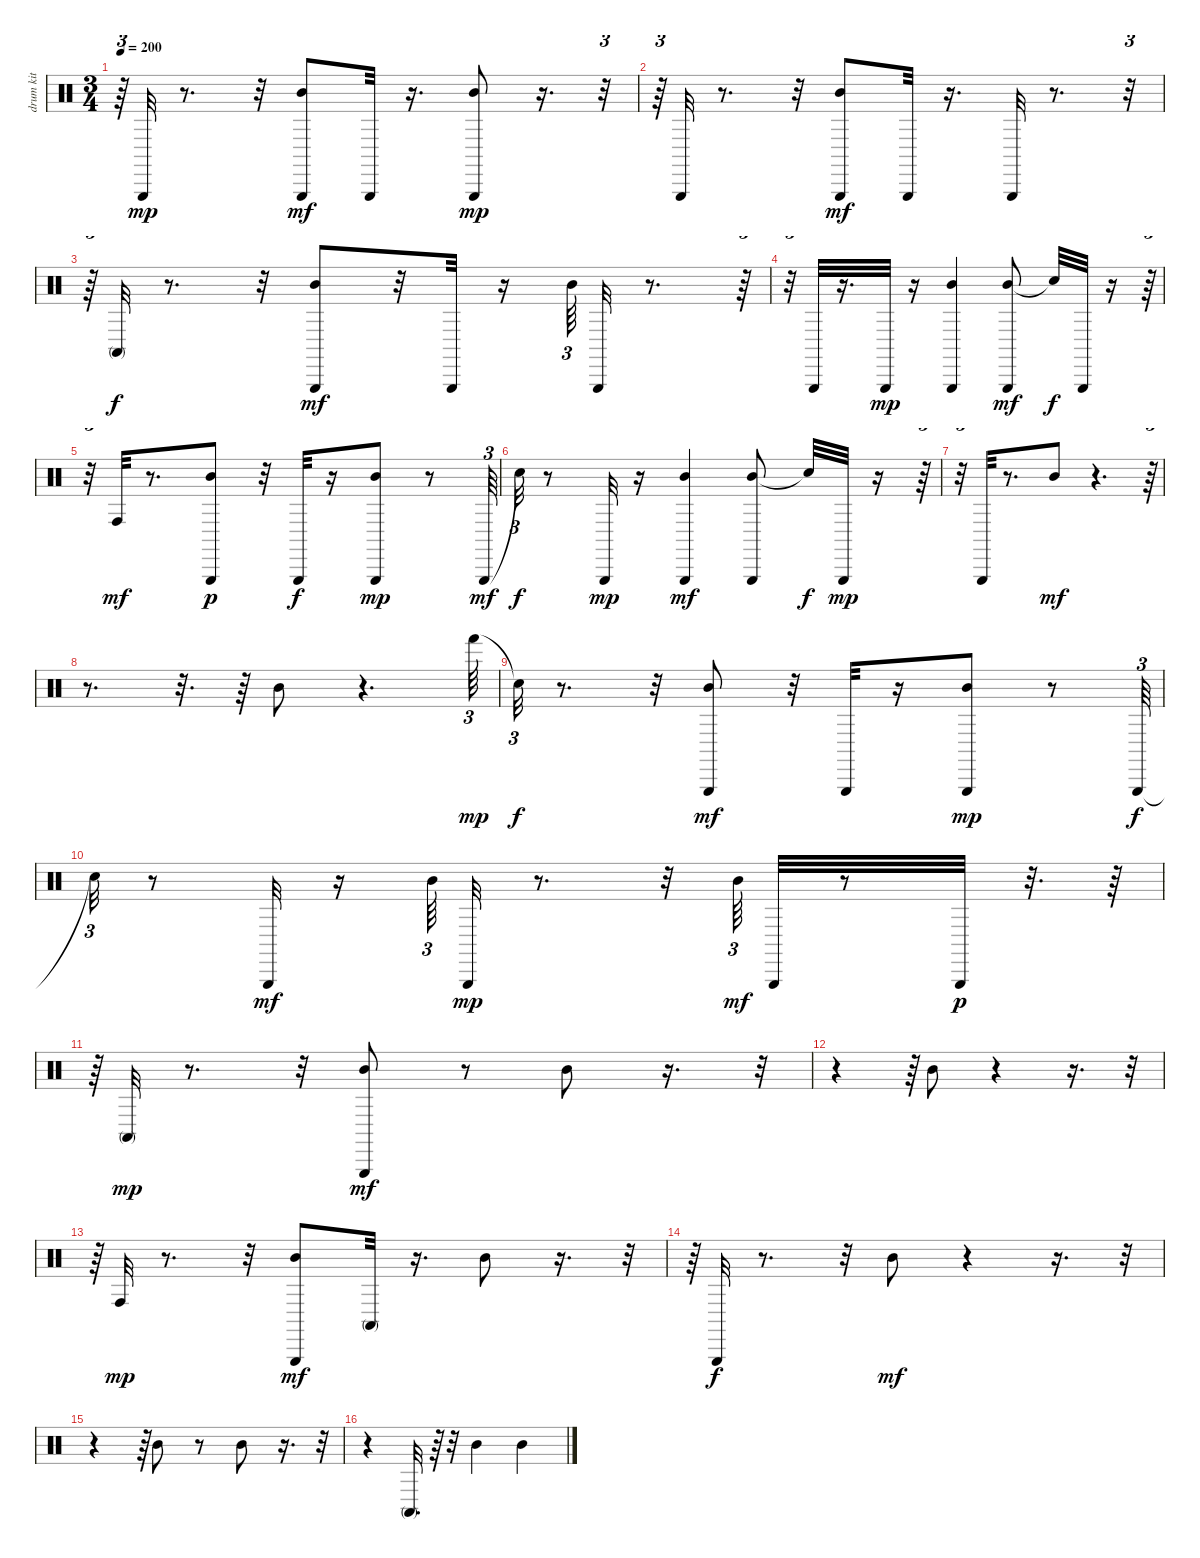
\track (" drum kit (hi-hat/cymbals)" " drum kit ") {instrument percussion}
\staff {score}
\articulation defaults
\ts (3 4)
\tempo 200
\clef neutral
\ks c
r.64{tu (3 2) dy f} "Triangle (hit)".32{dy mp} r.8{d} r.32 ("Mid Tom (hit)" "Triangle (hit)").8{dy mf} "Triangle (hit)".32 r.16{d} ("Mid Tom (hit)" "Triangle (hit)").8{dy mp} r.16{d} r.32{tu (3 2)} |
r.64{tu (3 2)} "Triangle (hit)".32 r.8{d} r.32 ("Mid Tom (hit)" "Triangle (hit)").8{dy mf} "Triangle (hit)".32 r.16{d} "Triangle (hit)".32 r.8{d} r.32{tu (3 2)} |
r.64{tu (3 2)} "Conga high (mute)".32{dy f} r.8{d} r.32 ("Mid Tom (hit)" "Triangle (hit)").8{dy mf} r.32 "Triangle (hit)".32 r.16 "Mid Tom (hit)".64{tu (3 2)} "Triangle (hit)".32 r.8{d} r.64{tu (3 2)} |
r.32{tu (3 2)} "Triangle (hit)".32 r.16{d} "Triangle (hit)".32{dy mp} r.16 ("Mid Tom (hit)" "Triangle (hit)").4 ("Mid Tom (hit)" "Triangle (hit)").8{dy mf} "Snare (hit)"{t}.32{dy f} "Triangle (hit)".32 r.16 r.64{tu (3 2)} |
r.32{tu (3 2)} "Conga high (hit)".32{dy mf} r.8{d} ("Mid Tom (hit)" "Triangle (hit)").8{dy p} r.32 "Triangle (hit)".32{dy f} r.16 ("Mid Tom (hit)" "Triangle (hit)").8{dy mp} r.8 "Triangle (hit)".64{tu (3 2) dy mf} |
"Snare (hit)"{t}.32{tu (3 2) dy f} r.8 "Triangle (hit)".32{dy mp} r.16 ("Mid Tom (hit)" "Triangle (hit)").4{dy mf} ("Mid Tom (hit)" "Triangle (hit)").8 "Snare (hit)"{t}.32{dy f} "Triangle (hit)".32{dy mp} r.16 r.64{tu (3 2)} |
r.32{tu (3 2)} "Triangle (hit)".32 r.8{d} "Mid Tom (hit)".8{dy mf} r.4{d} r.64{tu (3 2)} |
r.8{d} r.32{d} r.64 "Mid Tom (hit)".8 r.4{d} "Hand (hit)".64{tu (3 2) dy mp} |
"Snare (hit)"{t}.32{tu (3 2) dy f} r.8{d} r.32 ("Mid Tom (hit)" "Triangle (hit)").8{dy mf} r.32 "Triangle (hit)".32 r.16 ("Mid Tom (hit)" "Triangle (hit)").8{dy mp} r.8 "Triangle (hit)".64{tu (3 2) dy f} |
"Snare (hit)"{t}.32{tu (3 2)} r.8 "Triangle (hit)".32{dy mf} r.16 "Mid Tom (hit)".64{tu (3 2)} "Triangle (hit)".32{dy mp} r.8{d} r.32 "Mid Tom (hit)".64{tu (3 2) dy mf} "Triangle (hit)".32 r.8 "Triangle (hit)".32{dy p} r.32{d} r.64 |
r.64{tu (3 2)} "Conga high (mute)".32{dy mp} r.8{d} r.32 ("Mid Tom (hit)" "Triangle (hit)").8{dy mf} r.8 "Mid Tom (hit)".8 r.16{d} r.32{tu (3 2)} |
r.4 r.64{tu (3 2)} "Mid Tom (hit)".8 r.4 r.16{d} r.32{tu (3 2)} |
r.64{tu (3 2)} "Conga high (hit)".32{dy mp} r.8{d} r.32 ("Mid Tom (hit)" "Triangle (hit)").8{dy mf} "Conga high (mute)".32 r.16{d} "Mid Tom (hit)".8 r.16{d} r.32{tu (3 2)} |
r.64{tu (3 2)} "Triangle (hit)".32{dy f} r.8{d} r.32 "Mid Tom (hit)".8{dy mf} r.4 r.16{d} r.32{tu (3 2)} |
r.4 r.64{tu (3 2)} "Mid Tom (hit)".8 r.8 "Mid Tom (hit)".8 r.16{d} r.32{tu (3 2)} |
r.4{tu (3 2)} "Conga high (mute)".32{d} r.64 r.32 "Mid Tom (hit)".4 "Mid Tom (hit)".4
